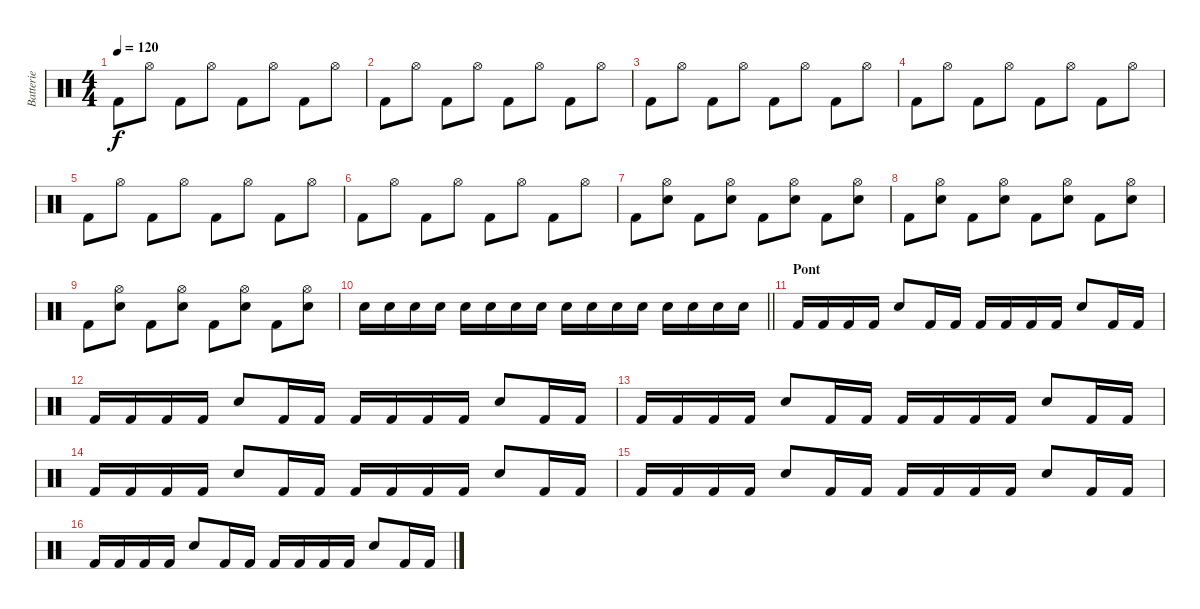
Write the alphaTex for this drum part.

\track ("Batterie" "Batterie") {instrument percussion}
\staff {score}
\articulation defaults
\ts (4 4)
\tempo 120
\clef neutral
\ks c "Kick (hit) 2".8{dy f} "Hi-Hat (open)".8 "Kick (hit) 2".8 "Hi-Hat (open)".8 "Kick (hit) 2".8 "Hi-Hat (open)".8 "Kick (hit) 2".8 "Hi-Hat (open)".8
|
"Kick (hit) 2".8 "Hi-Hat (open)".8 "Kick (hit) 2".8 "Hi-Hat (open)".8 "Kick (hit) 2".8 "Hi-Hat (open)".8 "Kick (hit) 2".8 "Hi-Hat (open)".8 |
"Kick (hit) 2".8 "Hi-Hat (open)".8 "Kick (hit) 2".8 "Hi-Hat (open)".8 "Kick (hit) 2".8 "Hi-Hat (open)".8 "Kick (hit) 2".8 "Hi-Hat (open)".8 |
"Kick (hit) 2".8 "Hi-Hat (open)".8 "Kick (hit) 2".8 "Hi-Hat (open)".8 "Kick (hit) 2".8 "Hi-Hat (open)".8 "Kick (hit) 2".8 "Hi-Hat (open)".8 |
"Kick (hit) 2".8 "Hi-Hat (open)".8 "Kick (hit) 2".8 "Hi-Hat (open)".8 "Kick (hit) 2".8 "Hi-Hat (open)".8 "Kick (hit) 2".8 "Hi-Hat (open)".8 |
"Kick (hit) 2".8 "Hi-Hat (open)".8 "Kick (hit) 2".8 "Hi-Hat (open)".8 "Kick (hit) 2".8 "Hi-Hat (open)".8 "Kick (hit) 2".8 "Hi-Hat (open)".8 |
"Kick (hit) 2".8 ("Hi-Hat (open)" "Electric Snare (hit)").8 "Kick (hit) 2".8 ("Hi-Hat (open)" "Electric Snare (hit)").8 "Kick (hit) 2".8 ("Hi-Hat (open)" "Electric Snare (hit)").8 "Kick (hit) 2".8 ("Hi-Hat (open)" "Electric Snare (hit)").8 |
"Kick (hit) 2".8 ("Hi-Hat (open)" "Electric Snare (hit)").8 "Kick (hit) 2".8 ("Hi-Hat (open)" "Electric Snare (hit)").8 "Kick (hit) 2".8 ("Hi-Hat (open)" "Electric Snare (hit)").8 "Kick (hit) 2".8 ("Hi-Hat (open)" "Electric Snare (hit)").8 |
"Kick (hit) 2".8 ("Hi-Hat (open)" "Electric Snare (hit)").8 "Kick (hit) 2".8 ("Hi-Hat (open)" "Electric Snare (hit)").8 "Kick (hit) 2".8 ("Hi-Hat (open)" "Electric Snare (hit)").8 "Kick (hit) 2".8 ("Hi-Hat (open)" "Electric Snare (hit)").8 |
\barLineRight lightlight "Electric Snare (hit)".16 "Electric Snare (hit)".16 "Electric Snare (hit)".16 "Electric Snare (hit)".16 "Electric Snare (hit)".16 "Electric Snare (hit)".16 "Electric Snare (hit)".16 "Electric Snare (hit)".16 "Electric Snare (hit)".16 "Electric Snare (hit)".16 "Electric Snare (hit)".16 "Electric Snare (hit)".16 "Electric Snare (hit)".16 "Electric Snare (hit)".16 "Electric Snare (hit)".16 "Electric Snare (hit)".16
|
\section ("" "Pont")
"Kick (hit) 2".16 "Kick (hit) 2".16 "Kick (hit) 2".16 "Kick (hit) 2".16 "Electric Snare (hit)".8 "Kick (hit) 2".16 "Kick (hit) 2".16 "Kick (hit) 2".16 "Kick (hit) 2".16 "Kick (hit) 2".16 "Kick (hit) 2".16 "Electric Snare (hit)".8 "Kick (hit) 2".16 "Kick (hit) 2".16 |
"Kick (hit) 2".16 "Kick (hit) 2".16 "Kick (hit) 2".16 "Kick (hit) 2".16 "Electric Snare (hit)".8 "Kick (hit) 2".16 "Kick (hit) 2".16 "Kick (hit) 2".16 "Kick (hit) 2".16 "Kick (hit) 2".16 "Kick (hit) 2".16 "Electric Snare (hit)".8 "Kick (hit) 2".16 "Kick (hit) 2".16 |
"Kick (hit) 2".16 "Kick (hit) 2".16 "Kick (hit) 2".16 "Kick (hit) 2".16 "Electric Snare (hit)".8 "Kick (hit) 2".16 "Kick (hit) 2".16 "Kick (hit) 2".16 "Kick (hit) 2".16 "Kick (hit) 2".16 "Kick (hit) 2".16 "Electric Snare (hit)".8 "Kick (hit) 2".16 "Kick (hit) 2".16 |
"Kick (hit) 2".16 "Kick (hit) 2".16 "Kick (hit) 2".16 "Kick (hit) 2".16 "Electric Snare (hit)".8 "Kick (hit) 2".16 "Kick (hit) 2".16 "Kick (hit) 2".16 "Kick (hit) 2".16 "Kick (hit) 2".16 "Kick (hit) 2".16 "Electric Snare (hit)".8 "Kick (hit) 2".16 "Kick (hit) 2".16 |
"Kick (hit) 2".16 "Kick (hit) 2".16 "Kick (hit) 2".16 "Kick (hit) 2".16 "Electric Snare (hit)".8 "Kick (hit) 2".16 "Kick (hit) 2".16 "Kick (hit) 2".16 "Kick (hit) 2".16 "Kick (hit) 2".16 "Kick (hit) 2".16 "Electric Snare (hit)".8 "Kick (hit) 2".16 "Kick (hit) 2".16 |
"Kick (hit) 2".16 "Kick (hit) 2".16 "Kick (hit) 2".16 "Kick (hit) 2".16 "Electric Snare (hit)".8 "Kick (hit) 2".16 "Kick (hit) 2".16 "Kick (hit) 2".16 "Kick (hit) 2".16 "Kick (hit) 2".16 "Kick (hit) 2".16 "Electric Snare (hit)".8 "Kick (hit) 2".16 "Kick (hit) 2".16
